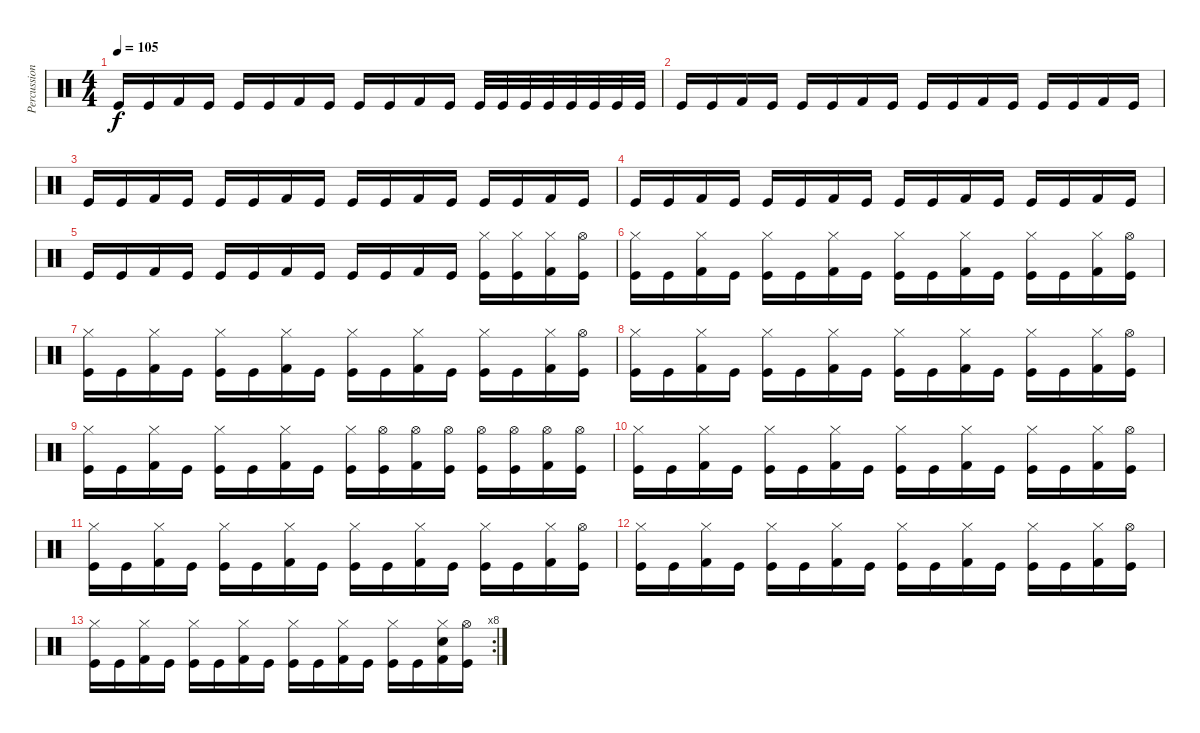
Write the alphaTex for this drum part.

\track ("Percussion" "Percussion") {instrument percussion}
\staff {score}
\articulation defaults
\ts (4 4)
\tempo 105
\clef neutral
\ks c "Kick (hit)".16{dy f} "Kick (hit)".16 "Kick (hit) 2".16 "Kick (hit)".16 "Kick (hit)".16 "Kick (hit)".16 "Kick (hit) 2".16 "Kick (hit)".16 "Kick (hit)".16 "Kick (hit)".16 "Kick (hit) 2".16 "Kick (hit)".16 "Kick (hit)".32 "Kick (hit)".32 "Kick (hit)".32 "Kick (hit)".32 "Kick (hit)".32 "Kick (hit)".32 "Kick (hit)".32 "Kick (hit)".32
|
"Kick (hit)".16 "Kick (hit)".16 "Kick (hit) 2".16 "Kick (hit)".16 "Kick (hit)".16 "Kick (hit)".16 "Kick (hit) 2".16 "Kick (hit)".16 "Kick (hit)".16 "Kick (hit)".16 "Kick (hit) 2".16 "Kick (hit)".16 "Kick (hit)".16 "Kick (hit)".16 "Kick (hit) 2".16 "Kick (hit)".16 |
"Kick (hit)".16 "Kick (hit)".16 "Kick (hit) 2".16 "Kick (hit)".16 "Kick (hit)".16 "Kick (hit)".16 "Kick (hit) 2".16 "Kick (hit)".16 "Kick (hit)".16 "Kick (hit)".16 "Kick (hit) 2".16 "Kick (hit)".16 "Kick (hit)".16 "Kick (hit)".16 "Kick (hit) 2".16 "Kick (hit)".16 |
"Kick (hit)".16 "Kick (hit)".16 "Kick (hit) 2".16 "Kick (hit)".16 "Kick (hit)".16 "Kick (hit)".16 "Kick (hit) 2".16 "Kick (hit)".16 "Kick (hit)".16 "Kick (hit)".16 "Kick (hit) 2".16 "Kick (hit)".16 "Kick (hit)".16 "Kick (hit)".16 "Kick (hit) 2".16 "Kick (hit)".16 |
"Kick (hit)".16 "Kick (hit)".16 "Kick (hit) 2".16 "Kick (hit)".16 "Kick (hit)".16 "Kick (hit)".16 "Kick (hit) 2".16 "Kick (hit)".16 "Kick (hit)".16 "Kick (hit)".16 "Kick (hit) 2".16 "Kick (hit)".16 ("Hi-Hat (closed)" "Kick (hit)").16 ("Hi-Hat (closed)" "Kick (hit)").16 ("Hi-Hat (closed)" "Kick (hit) 2").16 ("Hi-Hat (open)" "Kick (hit)").16 |
("Hi-Hat (closed)" "Kick (hit)").16 "Kick (hit)".16 ("Hi-Hat (closed)" "Kick (hit) 2").16 "Kick (hit)".16 ("Hi-Hat (closed)" "Kick (hit)").16 "Kick (hit)".16 ("Hi-Hat (closed)" "Kick (hit) 2").16 "Kick (hit)".16 ("Hi-Hat (closed)" "Kick (hit)").16 "Kick (hit)".16 ("Hi-Hat (closed)" "Kick (hit) 2").16 "Kick (hit)".16 ("Hi-Hat (closed)" "Kick (hit)").16 "Kick (hit)".16 ("Hi-Hat (closed)" "Kick (hit) 2").16 ("Hi-Hat (open)" "Kick (hit)").16 |
("Hi-Hat (closed)" "Kick (hit)").16 "Kick (hit)".16 ("Hi-Hat (closed)" "Kick (hit) 2").16 "Kick (hit)".16 ("Hi-Hat (closed)" "Kick (hit)").16 "Kick (hit)".16 ("Hi-Hat (closed)" "Kick (hit) 2").16 "Kick (hit)".16 ("Hi-Hat (closed)" "Kick (hit)").16 "Kick (hit)".16 ("Hi-Hat (closed)" "Kick (hit) 2").16 "Kick (hit)".16 ("Hi-Hat (closed)" "Kick (hit)").16 "Kick (hit)".16 ("Hi-Hat (closed)" "Kick (hit) 2").16 ("Hi-Hat (open)" "Kick (hit)").16 |
("Hi-Hat (closed)" "Kick (hit)").16 "Kick (hit)".16 ("Hi-Hat (closed)" "Kick (hit) 2").16 "Kick (hit)".16 ("Hi-Hat (closed)" "Kick (hit)").16 "Kick (hit)".16 ("Hi-Hat (closed)" "Kick (hit) 2").16 "Kick (hit)".16 ("Hi-Hat (closed)" "Kick (hit)").16 "Kick (hit)".16 ("Hi-Hat (closed)" "Kick (hit) 2").16 "Kick (hit)".16 ("Hi-Hat (closed)" "Kick (hit)").16 "Kick (hit)".16 ("Hi-Hat (closed)" "Kick (hit) 2").16 ("Hi-Hat (open)" "Kick (hit)").16 |
("Hi-Hat (closed)" "Kick (hit)").16 "Kick (hit)".16 ("Hi-Hat (closed)" "Kick (hit) 2").16 "Kick (hit)".16 ("Hi-Hat (closed)" "Kick (hit)").16 "Kick (hit)".16 ("Hi-Hat (closed)" "Kick (hit) 2").16 "Kick (hit)".16 ("Hi-Hat (closed)" "Kick (hit)").16 ("Hi-Hat (open)" "Kick (hit)").16 ("Hi-Hat (open)" "Kick (hit) 2").16 ("Hi-Hat (open)" "Kick (hit)").16 ("Hi-Hat (open)" "Kick (hit)").16 ("Hi-Hat (open)" "Kick (hit)").16 ("Hi-Hat (open)" "Kick (hit) 2").16 ("Hi-Hat (open)" "Kick (hit)").16 |
("Hi-Hat (closed)" "Kick (hit)").16 "Kick (hit)".16 ("Hi-Hat (closed)" "Kick (hit) 2").16 "Kick (hit)".16 ("Hi-Hat (closed)" "Kick (hit)").16 "Kick (hit)".16 ("Hi-Hat (closed)" "Kick (hit) 2").16 "Kick (hit)".16 ("Hi-Hat (closed)" "Kick (hit)").16 "Kick (hit)".16 ("Hi-Hat (closed)" "Kick (hit) 2").16 "Kick (hit)".16 ("Hi-Hat (closed)" "Kick (hit)").16 "Kick (hit)".16 ("Hi-Hat (closed)" "Kick (hit) 2").16 ("Hi-Hat (open)" "Kick (hit)").16 |
("Hi-Hat (closed)" "Kick (hit)").16 "Kick (hit)".16 ("Hi-Hat (closed)" "Kick (hit) 2").16 "Kick (hit)".16 ("Hi-Hat (closed)" "Kick (hit)").16 "Kick (hit)".16 ("Hi-Hat (closed)" "Kick (hit) 2").16 "Kick (hit)".16 ("Hi-Hat (closed)" "Kick (hit)").16 "Kick (hit)".16 ("Hi-Hat (closed)" "Kick (hit) 2").16 "Kick (hit)".16 ("Hi-Hat (closed)" "Kick (hit)").16 "Kick (hit)".16 ("Hi-Hat (closed)" "Kick (hit) 2").16 ("Hi-Hat (open)" "Kick (hit)").16 |
("Hi-Hat (closed)" "Kick (hit)").16 "Kick (hit)".16 ("Hi-Hat (closed)" "Kick (hit) 2").16 "Kick (hit)".16 ("Hi-Hat (closed)" "Kick (hit)").16 "Kick (hit)".16 ("Hi-Hat (closed)" "Kick (hit) 2").16 "Kick (hit)".16 ("Hi-Hat (closed)" "Kick (hit)").16 "Kick (hit)".16 ("Hi-Hat (closed)" "Kick (hit) 2").16 "Kick (hit)".16 ("Hi-Hat (closed)" "Kick (hit)").16 "Kick (hit)".16 ("Hi-Hat (closed)" "Kick (hit) 2").16 ("Hi-Hat (open)" "Kick (hit)").16 |
\rc 8
("Hi-Hat (closed)" "Kick (hit)").16 "Kick (hit)".16 ("Hi-Hat (closed)" "Kick (hit) 2").16 "Kick (hit)".16 ("Hi-Hat (closed)" "Kick (hit)").16 "Kick (hit)".16 ("Hi-Hat (closed)" "Kick (hit) 2").16 "Kick (hit)".16 ("Hi-Hat (closed)" "Kick (hit)").16 "Kick (hit)".16 ("Hi-Hat (closed)" "Kick (hit) 2").16 "Kick (hit)".16 ("Hi-Hat (closed)" "Kick (hit)").16 "Kick (hit)".16 ("Electric Snare (hit)" "Hi-Hat (closed)" "Kick (hit) 2").16 ("Hi-Hat (open)" "Kick (hit)").16
